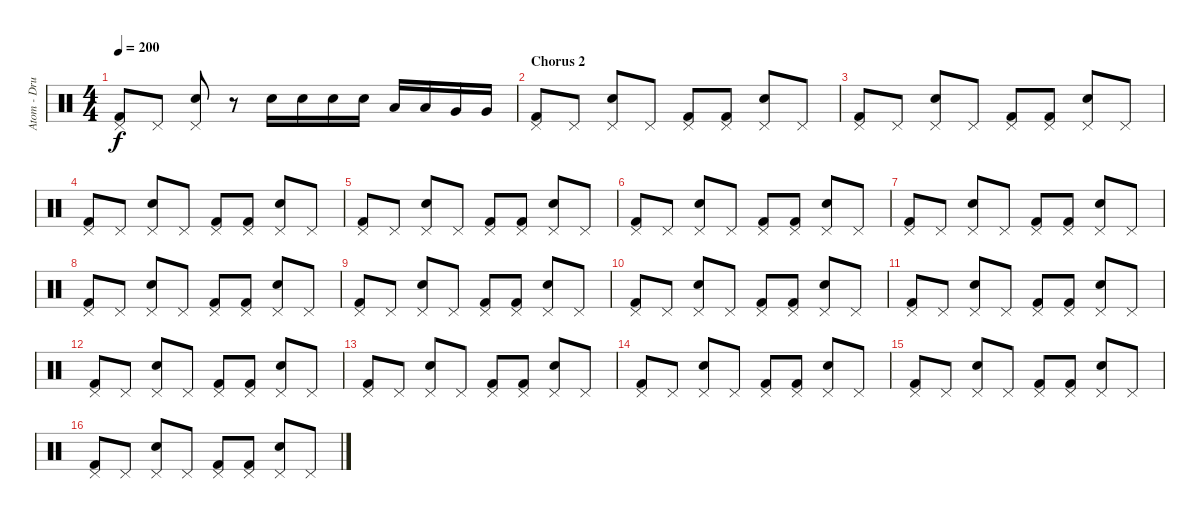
\track ("Atom - Drums" "Atom - Dru") {instrument percussion}
\staff {score}
\articulation defaults
\ts (4 4)
\tempo 200
\clef neutral
\ks c
("Pedal Hi-Hat (hit)" "Kick (hit) 2").8{dy f} "Pedal Hi-Hat (hit)".8 ("Pedal Hi-Hat (hit)" "Electric Snare (hit)").8 r.8 "Electric Snare (hit)".16 "Electric Snare (hit)".16 "Electric Snare (hit)".16 "Electric Snare (hit)".16 "Low Tom (hit)".16 "Low Tom (hit)".16 "Very Low Tom (hit)".16 "Very Low Tom (hit)".16 |
\section ("" "Chorus 2")
("Pedal Hi-Hat (hit)" "Kick (hit) 2").8 "Pedal Hi-Hat (hit)".8 ("Pedal Hi-Hat (hit)" "Electric Snare (hit)").8 "Pedal Hi-Hat (hit)".8 ("Pedal Hi-Hat (hit)" "Kick (hit) 2").8 ("Pedal Hi-Hat (hit)" "Kick (hit) 2").8 ("Pedal Hi-Hat (hit)" "Electric Snare (hit)").8 "Pedal Hi-Hat (hit)".8 |
("Pedal Hi-Hat (hit)" "Kick (hit) 2").8 "Pedal Hi-Hat (hit)".8 ("Pedal Hi-Hat (hit)" "Electric Snare (hit)").8 "Pedal Hi-Hat (hit)".8 ("Pedal Hi-Hat (hit)" "Kick (hit) 2").8 ("Pedal Hi-Hat (hit)" "Kick (hit) 2").8 ("Pedal Hi-Hat (hit)" "Electric Snare (hit)").8 "Pedal Hi-Hat (hit)".8 |
("Pedal Hi-Hat (hit)" "Kick (hit) 2").8 "Pedal Hi-Hat (hit)".8 ("Pedal Hi-Hat (hit)" "Electric Snare (hit)").8 "Pedal Hi-Hat (hit)".8 ("Pedal Hi-Hat (hit)" "Kick (hit) 2").8 ("Pedal Hi-Hat (hit)" "Kick (hit) 2").8 ("Pedal Hi-Hat (hit)" "Electric Snare (hit)").8 "Pedal Hi-Hat (hit)".8 |
("Pedal Hi-Hat (hit)" "Kick (hit) 2").8 "Pedal Hi-Hat (hit)".8 ("Pedal Hi-Hat (hit)" "Electric Snare (hit)").8 "Pedal Hi-Hat (hit)".8 ("Pedal Hi-Hat (hit)" "Kick (hit) 2").8 ("Pedal Hi-Hat (hit)" "Kick (hit) 2").8 ("Pedal Hi-Hat (hit)" "Electric Snare (hit)").8 "Pedal Hi-Hat (hit)".8 |
("Pedal Hi-Hat (hit)" "Kick (hit) 2").8 "Pedal Hi-Hat (hit)".8 ("Pedal Hi-Hat (hit)" "Electric Snare (hit)").8 "Pedal Hi-Hat (hit)".8 ("Pedal Hi-Hat (hit)" "Kick (hit) 2").8 ("Pedal Hi-Hat (hit)" "Kick (hit) 2").8 ("Pedal Hi-Hat (hit)" "Electric Snare (hit)").8 "Pedal Hi-Hat (hit)".8 |
("Pedal Hi-Hat (hit)" "Kick (hit) 2").8 "Pedal Hi-Hat (hit)".8 ("Pedal Hi-Hat (hit)" "Electric Snare (hit)").8 "Pedal Hi-Hat (hit)".8 ("Pedal Hi-Hat (hit)" "Kick (hit) 2").8 ("Pedal Hi-Hat (hit)" "Kick (hit) 2").8 ("Pedal Hi-Hat (hit)" "Electric Snare (hit)").8 "Pedal Hi-Hat (hit)".8 |
("Pedal Hi-Hat (hit)" "Kick (hit) 2").8 "Pedal Hi-Hat (hit)".8 ("Pedal Hi-Hat (hit)" "Electric Snare (hit)").8 "Pedal Hi-Hat (hit)".8 ("Pedal Hi-Hat (hit)" "Kick (hit) 2").8 ("Pedal Hi-Hat (hit)" "Kick (hit) 2").8 ("Pedal Hi-Hat (hit)" "Electric Snare (hit)").8 "Pedal Hi-Hat (hit)".8 |
("Pedal Hi-Hat (hit)" "Kick (hit) 2").8 "Pedal Hi-Hat (hit)".8 ("Pedal Hi-Hat (hit)" "Electric Snare (hit)").8 "Pedal Hi-Hat (hit)".8 ("Pedal Hi-Hat (hit)" "Kick (hit) 2").8 ("Pedal Hi-Hat (hit)" "Kick (hit) 2").8 ("Pedal Hi-Hat (hit)" "Electric Snare (hit)").8 "Pedal Hi-Hat (hit)".8 |
("Pedal Hi-Hat (hit)" "Kick (hit) 2").8 "Pedal Hi-Hat (hit)".8 ("Pedal Hi-Hat (hit)" "Electric Snare (hit)").8 "Pedal Hi-Hat (hit)".8 ("Pedal Hi-Hat (hit)" "Kick (hit) 2").8 ("Pedal Hi-Hat (hit)" "Kick (hit) 2").8 ("Pedal Hi-Hat (hit)" "Electric Snare (hit)").8 "Pedal Hi-Hat (hit)".8 |
("Pedal Hi-Hat (hit)" "Kick (hit) 2").8 "Pedal Hi-Hat (hit)".8 ("Pedal Hi-Hat (hit)" "Electric Snare (hit)").8 "Pedal Hi-Hat (hit)".8 ("Pedal Hi-Hat (hit)" "Kick (hit) 2").8 ("Pedal Hi-Hat (hit)" "Kick (hit) 2").8 ("Pedal Hi-Hat (hit)" "Electric Snare (hit)").8 "Pedal Hi-Hat (hit)".8 |
("Pedal Hi-Hat (hit)" "Kick (hit) 2").8 "Pedal Hi-Hat (hit)".8 ("Pedal Hi-Hat (hit)" "Electric Snare (hit)").8 "Pedal Hi-Hat (hit)".8 ("Pedal Hi-Hat (hit)" "Kick (hit) 2").8 ("Pedal Hi-Hat (hit)" "Kick (hit) 2").8 ("Pedal Hi-Hat (hit)" "Electric Snare (hit)").8 "Pedal Hi-Hat (hit)".8 |
("Pedal Hi-Hat (hit)" "Kick (hit) 2").8 "Pedal Hi-Hat (hit)".8 ("Pedal Hi-Hat (hit)" "Electric Snare (hit)").8 "Pedal Hi-Hat (hit)".8 ("Pedal Hi-Hat (hit)" "Kick (hit) 2").8 ("Pedal Hi-Hat (hit)" "Kick (hit) 2").8 ("Pedal Hi-Hat (hit)" "Electric Snare (hit)").8 "Pedal Hi-Hat (hit)".8 |
("Pedal Hi-Hat (hit)" "Kick (hit) 2").8 "Pedal Hi-Hat (hit)".8 ("Pedal Hi-Hat (hit)" "Electric Snare (hit)").8 "Pedal Hi-Hat (hit)".8 ("Pedal Hi-Hat (hit)" "Kick (hit) 2").8 ("Pedal Hi-Hat (hit)" "Kick (hit) 2").8 ("Pedal Hi-Hat (hit)" "Electric Snare (hit)").8 "Pedal Hi-Hat (hit)".8 |
("Pedal Hi-Hat (hit)" "Kick (hit) 2").8 "Pedal Hi-Hat (hit)".8 ("Pedal Hi-Hat (hit)" "Electric Snare (hit)").8 "Pedal Hi-Hat (hit)".8 ("Pedal Hi-Hat (hit)" "Kick (hit) 2").8 ("Pedal Hi-Hat (hit)" "Kick (hit) 2").8 ("Pedal Hi-Hat (hit)" "Electric Snare (hit)").8 "Pedal Hi-Hat (hit)".8 |
("Pedal Hi-Hat (hit)" "Kick (hit) 2").8 "Pedal Hi-Hat (hit)".8 ("Pedal Hi-Hat (hit)" "Electric Snare (hit)").8 "Pedal Hi-Hat (hit)".8 ("Pedal Hi-Hat (hit)" "Kick (hit) 2").8 ("Pedal Hi-Hat (hit)" "Kick (hit) 2").8 ("Pedal Hi-Hat (hit)" "Electric Snare (hit)").8 "Pedal Hi-Hat (hit)".8
